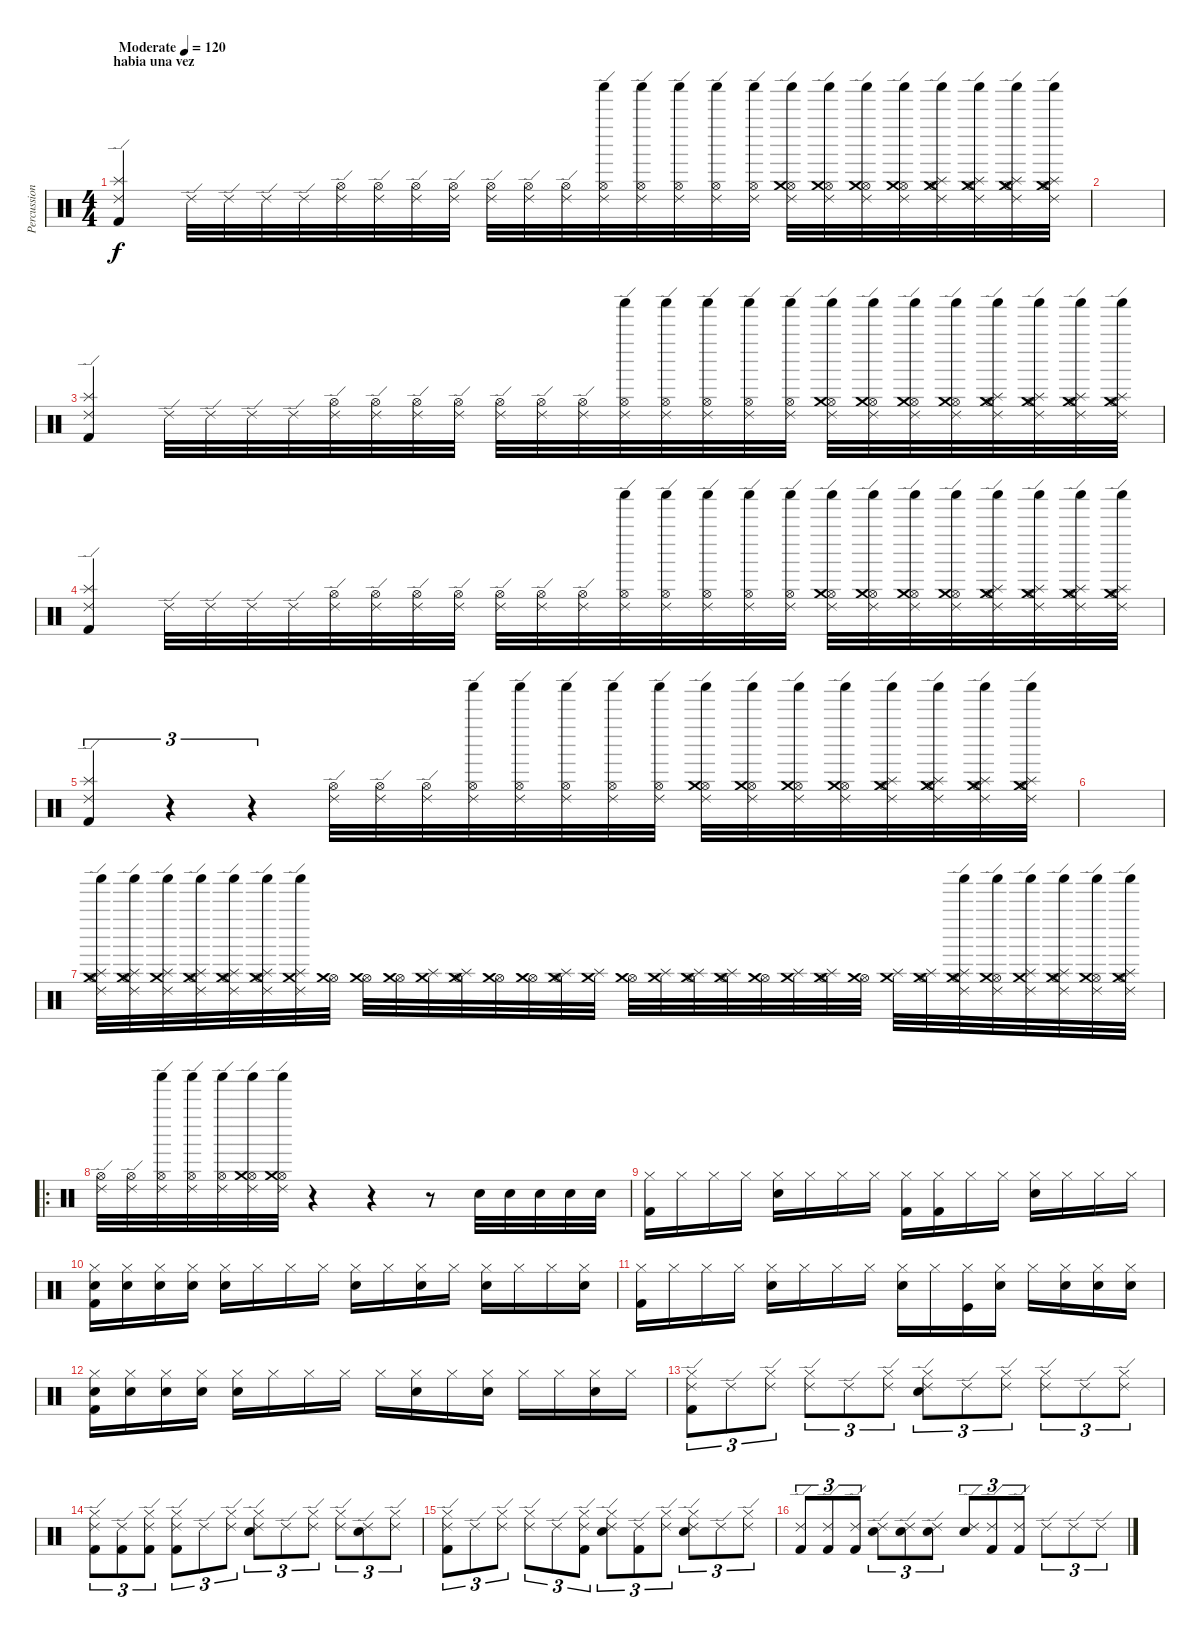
\track ("Percussion" "Percussion") {instrument percussion}
\staff {score}
\articulation defaults
\ts (4 4)
\section ("" "habia una vez")
\tempo (120 "Moderate")
\clef neutral
\ks c
("Ride (edge) 2" "Splash (hit)" "Kick (hit) 2").4{dy f} "Ride (edge) 2".32 "Ride (edge) 2".32 "Ride (edge) 2".32 "Ride (edge) 2".32 ("Hi-Hat (open)" "Ride (edge) 2").32 ("Hi-Hat (open)" "Ride (edge) 2").32 ("Hi-Hat (open)" "Ride (edge) 2").32 ("Hi-Hat (open)" "Ride (edge) 2").32 ("Hi-Hat (open)" "Ride (edge) 2").32 ("Hi-Hat (open)" "Ride (edge) 2").32 ("Hi-Hat (open)" "Ride (edge) 2").32 ("Shaker (hit)" "Hi-Hat (open)" "Ride (edge) 2").32 ("Shaker (hit)" "Hi-Hat (open)" "Ride (edge) 2").32 ("Shaker (hit)" "Hi-Hat (open)" "Ride (edge) 2").32 ("Shaker (hit)" "Hi-Hat (open)" "Ride (edge) 2").32 ("Shaker (hit)" "Hi-Hat (open)" "Ride (edge) 2").32 ("Shaker (hit)" "Hi-Hat (open)" "Ride (edge) 2" "Crash medium (hit)").32 ("Shaker (hit)" "Hi-Hat (open)" "Ride (edge) 2" "Crash medium (hit)").32 ("Shaker (hit)" "Hi-Hat (open)" "Ride (edge) 2" "Crash medium (hit)").32 ("Shaker (hit)" "Hi-Hat (open)" "Ride (edge) 2" "Crash medium (hit)").32 ("Shaker (hit)" "Hi-Hat (open)" "Ride (edge) 2" "Crash medium (hit)" "Splash (hit)").32 ("Shaker (hit)" "Hi-Hat (open)" "Ride (edge) 2" "Crash medium (hit)" "Splash (hit)").32 ("Shaker (hit)" "Hi-Hat (open)" "Ride (edge) 2" "Crash medium (hit)" "Splash (hit)").32 ("Shaker (hit)" "Hi-Hat (open)" "Ride (edge) 2" "Crash medium (hit)" "Splash (hit)").32 |
|
("Ride (edge) 2" "Splash (hit)" "Kick (hit) 2").4 "Ride (edge) 2".32 "Ride (edge) 2".32 "Ride (edge) 2".32 "Ride (edge) 2".32 ("Hi-Hat (open)" "Ride (edge) 2").32 ("Hi-Hat (open)" "Ride (edge) 2").32 ("Hi-Hat (open)" "Ride (edge) 2").32 ("Hi-Hat (open)" "Ride (edge) 2").32 ("Hi-Hat (open)" "Ride (edge) 2").32 ("Hi-Hat (open)" "Ride (edge) 2").32 ("Hi-Hat (open)" "Ride (edge) 2").32 ("Shaker (hit)" "Hi-Hat (open)" "Ride (edge) 2").32 ("Shaker (hit)" "Hi-Hat (open)" "Ride (edge) 2").32 ("Shaker (hit)" "Hi-Hat (open)" "Ride (edge) 2").32 ("Shaker (hit)" "Hi-Hat (open)" "Ride (edge) 2").32 ("Shaker (hit)" "Hi-Hat (open)" "Ride (edge) 2").32 ("Shaker (hit)" "Hi-Hat (open)" "Ride (edge) 2" "Crash medium (hit)").32 ("Shaker (hit)" "Hi-Hat (open)" "Ride (edge) 2" "Crash medium (hit)").32 ("Shaker (hit)" "Hi-Hat (open)" "Ride (edge) 2" "Crash medium (hit)").32 ("Shaker (hit)" "Hi-Hat (open)" "Ride (edge) 2" "Crash medium (hit)").32 ("Shaker (hit)" "Hi-Hat (open)" "Ride (edge) 2" "Crash medium (hit)" "Splash (hit)").32 ("Shaker (hit)" "Hi-Hat (open)" "Ride (edge) 2" "Crash medium (hit)" "Splash (hit)").32 ("Shaker (hit)" "Hi-Hat (open)" "Ride (edge) 2" "Crash medium (hit)" "Splash (hit)").32 ("Shaker (hit)" "Hi-Hat (open)" "Ride (edge) 2" "Crash medium (hit)" "Splash (hit)").32 |
("Ride (edge) 2" "Splash (hit)" "Kick (hit) 2").4 "Ride (edge) 2".32 "Ride (edge) 2".32 "Ride (edge) 2".32 "Ride (edge) 2".32 ("Hi-Hat (open)" "Ride (edge) 2").32 ("Hi-Hat (open)" "Ride (edge) 2").32 ("Hi-Hat (open)" "Ride (edge) 2").32 ("Hi-Hat (open)" "Ride (edge) 2").32 ("Hi-Hat (open)" "Ride (edge) 2").32 ("Hi-Hat (open)" "Ride (edge) 2").32 ("Hi-Hat (open)" "Ride (edge) 2").32 ("Shaker (hit)" "Hi-Hat (open)" "Ride (edge) 2").32 ("Shaker (hit)" "Hi-Hat (open)" "Ride (edge) 2").32 ("Shaker (hit)" "Hi-Hat (open)" "Ride (edge) 2").32 ("Shaker (hit)" "Hi-Hat (open)" "Ride (edge) 2").32 ("Shaker (hit)" "Hi-Hat (open)" "Ride (edge) 2").32 ("Shaker (hit)" "Hi-Hat (open)" "Ride (edge) 2" "Crash medium (hit)").32 ("Shaker (hit)" "Hi-Hat (open)" "Ride (edge) 2" "Crash medium (hit)").32 ("Shaker (hit)" "Hi-Hat (open)" "Ride (edge) 2" "Crash medium (hit)").32 ("Shaker (hit)" "Hi-Hat (open)" "Ride (edge) 2" "Crash medium (hit)").32 ("Shaker (hit)" "Hi-Hat (open)" "Ride (edge) 2" "Crash medium (hit)" "Splash (hit)").32 ("Shaker (hit)" "Hi-Hat (open)" "Ride (edge) 2" "Crash medium (hit)" "Splash (hit)").32 ("Shaker (hit)" "Hi-Hat (open)" "Ride (edge) 2" "Crash medium (hit)" "Splash (hit)").32 ("Shaker (hit)" "Hi-Hat (open)" "Ride (edge) 2" "Crash medium (hit)" "Splash (hit)").32 |
("Ride (edge) 2" "Splash (hit)" "Kick (hit) 2").4{tu (3 2)} r.4{tu (3 2)} r.4{tu (3 2)} ("Hi-Hat (open)" "Ride (edge) 2").32 ("Hi-Hat (open)" "Ride (edge) 2").32 ("Hi-Hat (open)" "Ride (edge) 2").32 ("Shaker (hit)" "Hi-Hat (open)" "Ride (edge) 2").32 ("Shaker (hit)" "Hi-Hat (open)" "Ride (edge) 2").32 ("Shaker (hit)" "Hi-Hat (open)" "Ride (edge) 2").32 ("Shaker (hit)" "Hi-Hat (open)" "Ride (edge) 2").32 ("Shaker (hit)" "Hi-Hat (open)" "Ride (edge) 2").32 ("Shaker (hit)" "Hi-Hat (open)" "Ride (edge) 2" "Crash medium (hit)").32 ("Shaker (hit)" "Hi-Hat (open)" "Ride (edge) 2" "Crash medium (hit)").32 ("Shaker (hit)" "Hi-Hat (open)" "Ride (edge) 2" "Crash medium (hit)").32 ("Shaker (hit)" "Hi-Hat (open)" "Ride (edge) 2" "Crash medium (hit)").32 ("Shaker (hit)" "Hi-Hat (open)" "Ride (edge) 2" "Crash medium (hit)" "Splash (hit)").32 ("Shaker (hit)" "Hi-Hat (open)" "Ride (edge) 2" "Crash medium (hit)" "Splash (hit)").32 ("Shaker (hit)" "Hi-Hat (open)" "Ride (edge) 2" "Crash medium (hit)" "Splash (hit)").32 ("Shaker (hit)" "Hi-Hat (open)" "Ride (edge) 2" "Crash medium (hit)" "Splash (hit)").32 |
|
("Shaker (hit)" "Hi-Hat (open)" "Ride (edge) 2" "Crash medium (hit)" "Splash (hit)").32 ("Shaker (hit)" "Hi-Hat (open)" "Ride (edge) 2" "Crash medium (hit)" "Splash (hit)").32 ("Shaker (hit)" "Ride (edge) 2" "Crash medium (hit)" "Splash (hit)").32 ("Shaker (hit)" "Hi-Hat (open)" "Ride (edge) 2" "Crash medium (hit)" "Splash (hit)").32 ("Shaker (hit)" "Hi-Hat (open)" "Ride (edge) 2" "Crash medium (hit)" "Splash (hit)").32 ("Shaker (hit)" "Hi-Hat (open)" "Ride (edge) 2" "Crash medium (hit)" "Splash (hit)").32 ("Shaker (hit)" "Ride (edge) 2" "Crash medium (hit)" "Splash (hit)").32 ("Hi-Hat (open)" "Crash medium (hit)").32 ("Hi-Hat (open)" "Crash medium (hit)").32 ("Hi-Hat (open)" "Crash medium (hit)").32 ("Crash medium (hit)" "Splash (hit)").32 ("Hi-Hat (open)" "Crash medium (hit)" "Splash (hit)").32 ("Hi-Hat (open)" "Crash medium (hit)").32 ("Hi-Hat (open)" "Crash medium (hit)").32 ("Hi-Hat (open)" "Crash medium (hit)" "Splash (hit)").32 ("Crash medium (hit)" "Splash (hit)").32 ("Hi-Hat (open)" "Crash medium (hit)").32 ("Crash medium (hit)" "Splash (hit)").32 ("Hi-Hat (open)" "Crash medium (hit)" "Splash (hit)").32 ("Hi-Hat (open)" "Crash medium (hit)" "Splash (hit)").32 ("Hi-Hat (open)" "Crash medium (hit)").32 ("Crash medium (hit)" "Splash (hit)").32 ("Hi-Hat (open)" "Crash medium (hit)" "Splash (hit)").32 ("Hi-Hat (open)" "Crash medium (hit)").32 ("Crash medium (hit)" "Splash (hit)").32 ("Hi-Hat (open)" "Crash medium (hit)" "Splash (hit)").32 ("Shaker (hit)" "Hi-Hat (open)" "Ride (edge) 2" "Crash medium (hit)" "Splash (hit)").32 ("Shaker (hit)" "Hi-Hat (open)" "Ride (edge) 2" "Crash medium (hit)").32 ("Shaker (hit)" "Ride (edge) 2" "Crash medium (hit)" "Splash (hit)").32 ("Shaker (hit)" "Hi-Hat (open)" "Ride (edge) 2" "Crash medium (hit)" "Splash (hit)").32 ("Shaker (hit)" "Hi-Hat (open)" "Ride (edge) 2" "Crash medium (hit)").32 ("Shaker (hit)" "Hi-Hat (open)" "Ride (edge) 2" "Crash medium (hit)" "Splash (hit)").32 |
\ro
("Hi-Hat (open)" "Ride (edge) 2").32 ("Hi-Hat (open)" "Ride (edge) 2").32 ("Shaker (hit)" "Hi-Hat (open)" "Ride (edge) 2").32 ("Shaker (hit)" "Hi-Hat (open)" "Ride (edge) 2").32 ("Shaker (hit)" "Hi-Hat (open)" "Ride (edge) 2").32 ("Shaker (hit)" "Hi-Hat (open)" "Ride (edge) 2" "Crash medium (hit)").32 ("Shaker (hit)" "Hi-Hat (open)" "Ride (edge) 2" "Crash medium (hit)").32 r.4 r.4 r.8 "Snare (hit) 2".32 "Snare (hit) 2".32 "Snare (hit) 2".32 "Snare (hit) 2".32 "Snare (hit) 2".32 |
("Kick (hit) 2" "Hi-Hat (closed)").16 "Hi-Hat (closed)".16 "Hi-Hat (closed)".16 "Hi-Hat (closed)".16 ("Snare (hit) 2" "Hi-Hat (closed)").16 "Hi-Hat (closed)".16 "Hi-Hat (closed)".16 "Hi-Hat (closed)".16 ("Kick (hit) 2" "Hi-Hat (closed)").16 ("Kick (hit) 2" "Hi-Hat (closed)").16 "Hi-Hat (closed)".16 "Hi-Hat (closed)".16 ("Snare (hit) 2" "Hi-Hat (closed)").16 "Hi-Hat (closed)".16 "Hi-Hat (closed)".16 "Hi-Hat (closed)".16 |
("Kick (hit) 2" "Snare (hit) 2" "Hi-Hat (closed)").16 ("Snare (hit) 2" "Hi-Hat (closed)").16 ("Snare (hit) 2" "Hi-Hat (closed)").16 ("Snare (hit) 2" "Hi-Hat (closed)").16 ("Snare (hit) 2" "Hi-Hat (closed)").16 "Hi-Hat (closed)".16 "Hi-Hat (closed)".16 "Hi-Hat (closed)".16 ("Snare (hit) 2" "Hi-Hat (closed)").16 "Hi-Hat (closed)".16 ("Snare (hit) 2" "Hi-Hat (closed)").16 "Hi-Hat (closed)".16 ("Snare (hit) 2" "Hi-Hat (closed)").16 "Hi-Hat (closed)".16 "Hi-Hat (closed)".16 ("Snare (hit) 2" "Hi-Hat (closed)").16 |
("Kick (hit) 2" "Hi-Hat (closed)").16 "Hi-Hat (closed)".16 "Hi-Hat (closed)".16 "Hi-Hat (closed)".16 ("Snare (hit) 2" "Hi-Hat (closed)").16 "Hi-Hat (closed)".16 "Hi-Hat (closed)".16 "Hi-Hat (closed)".16 ("Snare (hit) 2" "Hi-Hat (closed)").16 "Hi-Hat (closed)".16 ("Kick (hit)" "Hi-Hat (closed)").16 ("Snare (hit) 2" "Hi-Hat (closed)").16 "Hi-Hat (closed)".16 ("Snare (hit) 2" "Hi-Hat (closed)").16 ("Snare (hit) 2" "Hi-Hat (closed)").16 ("Snare (hit) 2" "Hi-Hat (closed)").16 |
("Kick (hit) 2" "Snare (hit) 2" "Hi-Hat (closed)").16 ("Snare (hit) 2" "Hi-Hat (closed)").16 ("Snare (hit) 2" "Hi-Hat (closed)").16 ("Snare (hit) 2" "Hi-Hat (closed)").16 ("Snare (hit) 2" "Hi-Hat (closed)").16 "Hi-Hat (closed)".16 "Hi-Hat (closed)".16 "Hi-Hat (closed)".16 "Hi-Hat (closed)".16 ("Snare (hit) 2" "Hi-Hat (closed)").16 "Hi-Hat (closed)".16 ("Snare (hit) 2" "Hi-Hat (closed)").16 "Hi-Hat (closed)".16 "Hi-Hat (closed)".16 ("Snare (hit) 2" "Hi-Hat (closed)").16 "Hi-Hat (closed)".16 |
("Kick (hit) 2" "Hi-Hat (closed)" "Ride (edge) 2").8{tu (3 2)} "Ride (edge) 2".8{tu (3 2)} ("Hi-Hat (closed)" "Ride (edge) 2").8{tu (3 2)} ("Hi-Hat (closed)" "Ride (edge) 2").8{tu (3 2)} "Ride (edge) 2".8{tu (3 2)} ("Hi-Hat (closed)" "Ride (edge) 2").8{tu (3 2)} ("Snare (hit) 2" "Hi-Hat (closed)" "Ride (edge) 2").8{tu (3 2)} "Ride (edge) 2".8{tu (3 2)} ("Hi-Hat (closed)" "Ride (edge) 2").8{tu (3 2)} ("Hi-Hat (closed)" "Ride (edge) 2").8{tu (3 2)} "Ride (edge) 2".8{tu (3 2)} ("Hi-Hat (closed)" "Ride (edge) 2").8{tu (3 2)} |
("Kick (hit) 2" "Hi-Hat (closed)" "Ride (edge) 2").8{tu (3 2)} ("Kick (hit) 2" "Ride (edge) 2").8{tu (3 2)} ("Kick (hit) 2" "Hi-Hat (closed)" "Ride (edge) 2").8{tu (3 2)} ("Kick (hit) 2" "Hi-Hat (closed)" "Ride (edge) 2").8{tu (3 2)} "Ride (edge) 2".8{tu (3 2)} ("Hi-Hat (closed)" "Ride (edge) 2").8{tu (3 2)} ("Snare (hit) 2" "Hi-Hat (closed)" "Ride (edge) 2").8{tu (3 2)} "Ride (edge) 2".8{tu (3 2)} ("Hi-Hat (closed)" "Ride (edge) 2").8{tu (3 2)} ("Hi-Hat (closed)" "Ride (edge) 2").8{tu (3 2)} ("Snare (hit) 2" "Ride (edge) 2").8{tu (3 2)} ("Hi-Hat (closed)" "Ride (edge) 2").8{tu (3 2)} |
("Kick (hit) 2" "Hi-Hat (closed)" "Ride (edge) 2").8{tu (3 2)} "Ride (edge) 2".8{tu (3 2)} ("Hi-Hat (closed)" "Ride (edge) 2").8{tu (3 2)} ("Hi-Hat (closed)" "Ride (edge) 2").8{tu (3 2)} "Ride (edge) 2".8{tu (3 2)} ("Kick (hit) 2" "Hi-Hat (closed)" "Ride (edge) 2").8{tu (3 2)} ("Snare (hit) 2" "Hi-Hat (closed)" "Ride (edge) 2").8{tu (3 2)} ("Kick (hit) 2" "Ride (edge) 2").8{tu (3 2)} ("Hi-Hat (closed)" "Ride (edge) 2").8{tu (3 2)} ("Snare (hit) 2" "Hi-Hat (closed)" "Ride (edge) 2").8{tu (3 2)} "Ride (edge) 2".8{tu (3 2)} ("Hi-Hat (closed)" "Ride (edge) 2").8{tu (3 2)} |
("Kick (hit) 2" "Ride (edge) 2").8{tu (3 2)} ("Kick (hit) 2" "Ride (edge) 2").8{tu (3 2)} ("Kick (hit) 2" "Ride (edge) 2").8{tu (3 2)} ("Snare (hit) 2" "Ride (edge) 2").8{tu (3 2)} ("Snare (hit) 2" "Ride (edge) 2").8{tu (3 2)} ("Snare (hit) 2" "Ride (edge) 2").8{tu (3 2)} ("Snare (hit) 2" "Ride (edge) 2").8{tu (3 2)} ("Kick (hit) 2" "Ride (edge) 2").8{tu (3 2)} ("Kick (hit) 2" "Ride (edge) 2").8{tu (3 2)} "Ride (edge) 2".8{tu (3 2)} "Ride (edge) 2".8{tu (3 2)} "Ride (edge) 2".8{tu (3 2)}
